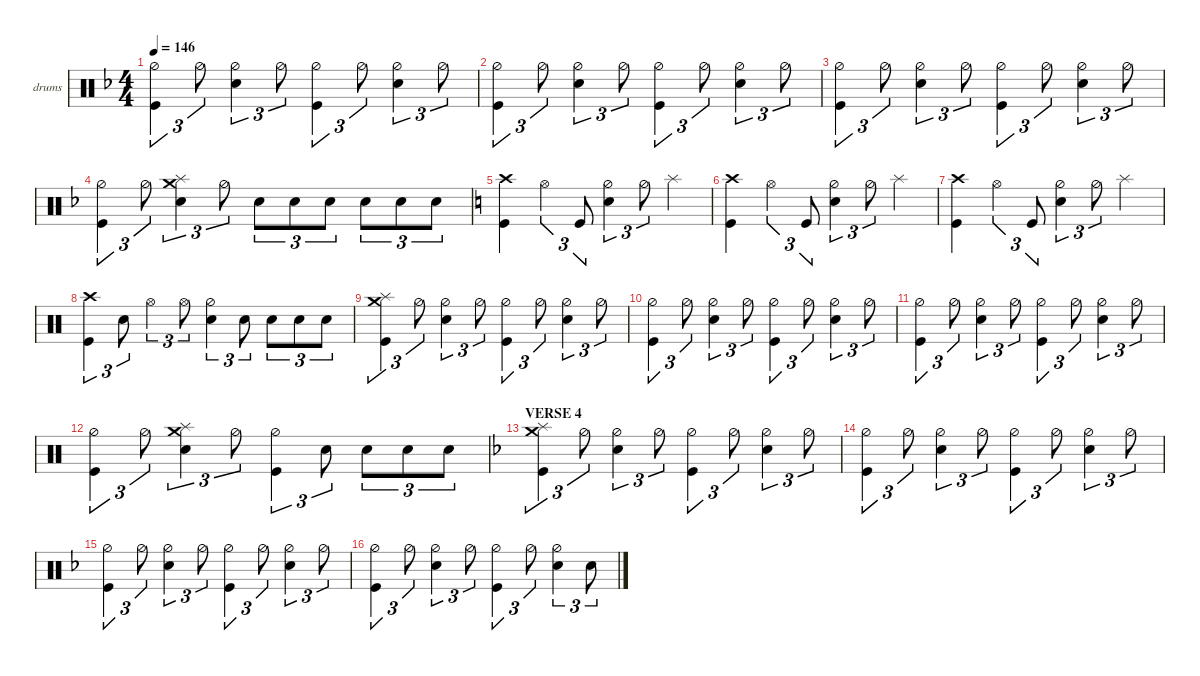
\defaultSystemsLayout 4
\hideDynamics
\bracketExtendMode nobrackets
\firstSystemTrackNameOrientation horizontal
\otherSystemsTrackNameOrientation horizontal
\track ("drums" "drums") {instrument percussion}
\staff {score}
\articulation defaults
\ts (4 4)
\tempo 146
\clef neutral
\scale
1.06392
\ks f
("Kick (hit)" "Hi-Hat (half)").4{tu (3 2) dy mf} "Hi-Hat (half)".8{tu (3 2)} ("Hi-Hat (half)" "Snare (hit) 2").4{tu (3 2)} "Hi-Hat (half)".8{tu (3 2)} ("Kick (hit)" "Hi-Hat (half)").4{tu (3 2)} "Hi-Hat (half)".8{tu (3 2)} ("Hi-Hat (half)" "Snare (hit) 2").4{tu (3 2)} "Hi-Hat (half)".8{tu (3 2)} |
\scale
0.978695 ("Kick (hit)" "Hi-Hat (half)").4{tu (3 2)} "Hi-Hat (half)".8{tu (3 2)} ("Hi-Hat (half)" "Snare (hit) 2").4{tu (3 2)} "Hi-Hat (half)".8{tu (3 2)} ("Kick (hit)" "Hi-Hat (half)").4{tu (3 2)} "Hi-Hat (half)".8{tu (3 2)} ("Hi-Hat (half)" "Snare (hit) 2").4{tu (3 2)} "Hi-Hat (half)".8{tu (3 2)} |
\scale
0.978695 ("Kick (hit)" "Hi-Hat (half)").4{tu (3 2)} "Hi-Hat (half)".8{tu (3 2)} ("Hi-Hat (half)" "Snare (hit) 2").4{tu (3 2)} "Hi-Hat (half)".8{tu (3 2)} ("Kick (hit)" "Hi-Hat (half)").4{tu (3 2)} "Hi-Hat (half)".8{tu (3 2)} ("Hi-Hat (half)" "Snare (hit) 2").4{tu (3 2)} "Hi-Hat (half)".8{tu (3 2)} |
\scale
0.978695 ("Kick (hit)" "Hi-Hat (half)").4{tu (3 2)} "Hi-Hat (half)".8{tu (3 2)} ("Splash (hit)" "Crash medium (hit)" "Snare (hit) 2").4{tu (3 2)} "Hi-Hat (half)".8{tu (3 2)} "Snare (hit) 2".8{tu (3 2)} "Snare (hit) 2".8{tu (3 2)} "Snare (hit) 2".8{tu (3 2)} "Snare (hit) 2".8{tu (3 2)} "Snare (hit) 2".8{tu (3 2)} "Snare (hit) 2".8{tu (3 2)} |
\scale
1.06392
\ks c
("Kick (hit)" "Crash high (hit)").4 "Hi-Hat (open)".4{tu (3 2)} "Kick (hit)".8{tu (3 2)} ("Hi-Hat (half)" "Snare (hit) 2").4{tu (3 2)} "Hi-Hat (half)".8{tu (3 2)} "Splash (hit)".4{dy p} |
\scale
0.978695 ("Kick (hit)" "Crash high (hit)").4{dy mf} "Hi-Hat (open)".4{tu (3 2)} "Kick (hit)".8{tu (3 2)} ("Hi-Hat (half)" "Snare (hit) 2").4{tu (3 2)} "Hi-Hat (half)".8{tu (3 2)} "Splash (hit)".4{dy p} |
\scale
0.978695 ("Kick (hit)" "Crash high (hit)").4{dy mf} "Hi-Hat (open)".4{tu (3 2)} "Kick (hit)".8{tu (3 2)} ("Hi-Hat (half)" "Snare (hit) 2").4{tu (3 2)} "Hi-Hat (half)".8{tu (3 2)} "Splash (hit)".4{dy p} |
\scale
0.978695 ("Kick (hit)" "Crash high (hit)").4{tu (3 2) dy f} "Snare (hit) 2".8{tu (3 2)} "Hi-Hat (open)".4{tu (3 2) dy mf} "Hi-Hat (open)".8{tu (3 2)} ("Hi-Hat (half)" "Snare (hit) 2").4{tu (3 2)} "Snare (hit) 2".8{tu (3 2) dy mp} "Snare (hit) 2".8{tu (3 2)} "Snare (hit) 2".8{tu (3 2) dy mf} "Snare (hit) 2".8{tu (3 2)} |
\scale
1.05949 ("Kick (hit)" "Splash (hit)" "Crash medium (hit)").4{tu (3 2)} "Hi-Hat (half)".8{tu (3 2)} ("Hi-Hat (half)" "Snare (hit) 2").4{tu (3 2)} "Hi-Hat (half)".8{tu (3 2)} ("Kick (hit)" "Hi-Hat (half)").4{tu (3 2)} "Hi-Hat (half)".8{tu (3 2)} ("Hi-Hat (half)" "Snare (hit) 2").4{tu (3 2)} "Hi-Hat (half)".8{tu (3 2)} |
\scale
0.974274 ("Kick (hit)" "Hi-Hat (half)").4{tu (3 2)} "Hi-Hat (half)".8{tu (3 2)} ("Hi-Hat (half)" "Snare (hit) 2").4{tu (3 2)} "Hi-Hat (half)".8{tu (3 2)} ("Kick (hit)" "Hi-Hat (half)").4{tu (3 2)} "Hi-Hat (half)".8{tu (3 2)} ("Hi-Hat (half)" "Snare (hit) 2").4{tu (3 2)} "Hi-Hat (half)".8{tu (3 2)} |
\scale
0.974274 ("Kick (hit)" "Hi-Hat (half)").4{tu (3 2)} "Hi-Hat (half)".8{tu (3 2)} ("Hi-Hat (half)" "Snare (hit) 2").4{tu (3 2)} "Hi-Hat (half)".8{tu (3 2)} ("Kick (hit)" "Hi-Hat (half)").4{tu (3 2)} "Hi-Hat (half)".8{tu (3 2)} ("Hi-Hat (half)" "Snare (hit) 2").4{tu (3 2)} "Hi-Hat (half)".8{tu (3 2)} |
\scale
0.991958 ("Kick (hit)" "Hi-Hat (half)").4{tu (3 2)} "Hi-Hat (half)".8{tu (3 2)} ("Splash (hit)" "Crash medium (hit)" "Snare (hit) 2").4{tu (3 2)} "Hi-Hat (half)".8{tu (3 2)} ("Kick (hit)" "Hi-Hat (half)").4{tu (3 2)} "Snare (hit) 2".8{tu (3 2)} "Snare (hit) 2".8{tu (3 2)} "Snare (hit) 2".8{tu (3 2)} "Snare (hit) 2".8{tu (3 2)} |
\section ("" "VERSE 4")
\scale
1.06392
\ks f
("Kick (hit)" "Splash (hit)" "Crash medium (hit)").4{tu (3 2)} "Hi-Hat (half)".8{tu (3 2)} ("Hi-Hat (half)" "Snare (hit) 2").4{tu (3 2)} "Hi-Hat (half)".8{tu (3 2)} ("Kick (hit)" "Hi-Hat (half)").4{tu (3 2)} "Hi-Hat (half)".8{tu (3 2)} ("Hi-Hat (half)" "Snare (hit) 2").4{tu (3 2)} "Hi-Hat (half)".8{tu (3 2)} |
\scale
0.978695 ("Kick (hit)" "Hi-Hat (half)").4{tu (3 2)} "Hi-Hat (half)".8{tu (3 2)} ("Hi-Hat (half)" "Snare (hit) 2").4{tu (3 2)} "Hi-Hat (half)".8{tu (3 2)} ("Kick (hit)" "Hi-Hat (half)").4{tu (3 2)} "Hi-Hat (half)".8{tu (3 2)} ("Hi-Hat (half)" "Snare (hit) 2").4{tu (3 2)} "Hi-Hat (half)".8{tu (3 2)} |
\scale
0.978695 ("Kick (hit)" "Hi-Hat (half)").4{tu (3 2)} "Hi-Hat (half)".8{tu (3 2)} ("Hi-Hat (half)" "Snare (hit) 2").4{tu (3 2)} "Hi-Hat (half)".8{tu (3 2)} ("Kick (hit)" "Hi-Hat (half)").4{tu (3 2)} "Hi-Hat (half)".8{tu (3 2)} ("Hi-Hat (half)" "Snare (hit) 2").4{tu (3 2)} "Hi-Hat (half)".8{tu (3 2)} |
\scale
0.978695 ("Kick (hit)" "Hi-Hat (half)").4{tu (3 2)} "Hi-Hat (half)".8{tu (3 2)} ("Hi-Hat (half)" "Snare (hit) 2").4{tu (3 2)} "Hi-Hat (half)".8{tu (3 2)} ("Kick (hit)" "Hi-Hat (half)").4{tu (3 2)} "Hi-Hat (half)".8{tu (3 2)} ("Hi-Hat (half)" "Snare (hit) 2").4{tu (3 2)} "Snare (hit) 2".8{tu (3 2)}
